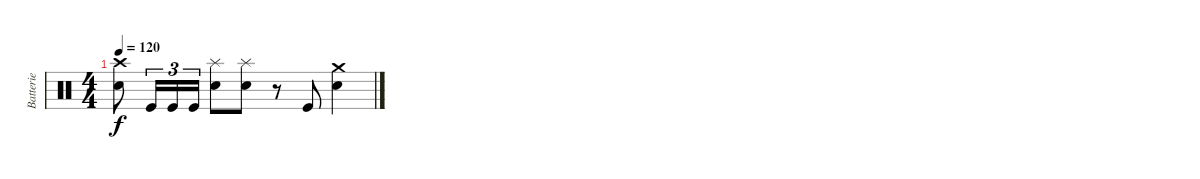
\track ("Batterie" "Batterie") {instrument percussion}
\staff {score}
\articulation defaults
\ts (4 4)
\tempo 120
\clef neutral
\ks c
("Crash high (hit)" "Snare (hit) 2").8{dy f} "Kick (hit)".16{tu (3 2)} "Kick (hit)".16{tu (3 2)} "Kick (hit)".16{tu (3 2)} ("Splash (hit)" "Snare (hit) 2").8 ("Splash (hit)" "Snare (hit) 2").8 r.8 "Kick (hit)".8 ("Crash medium (hit)" "Snare (hit) 2").4
